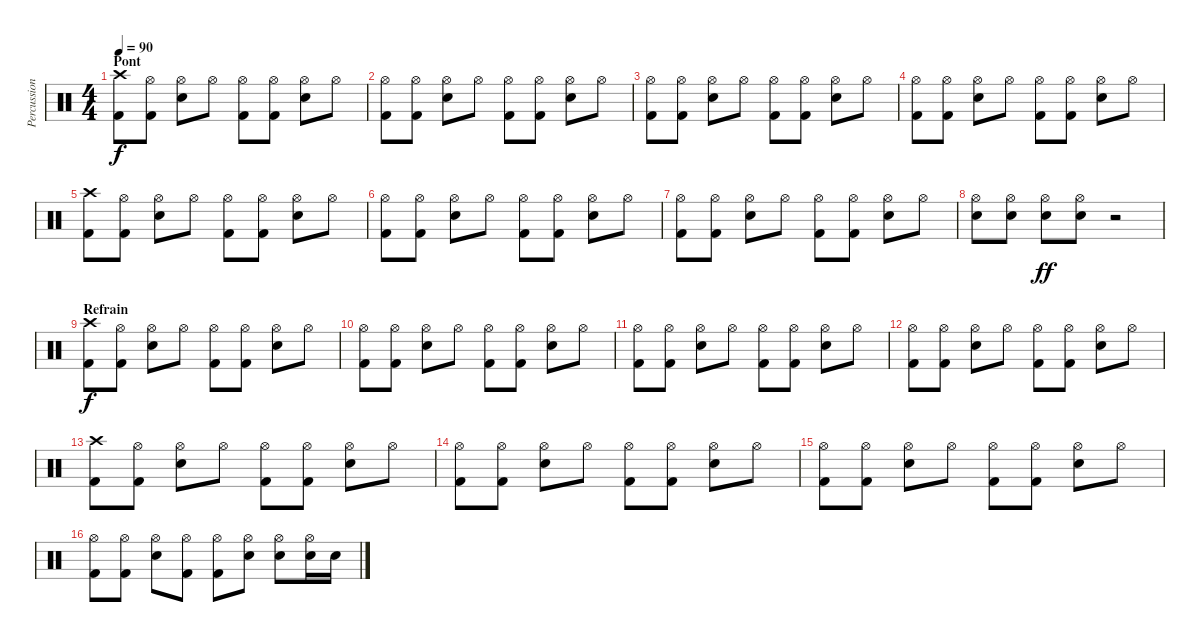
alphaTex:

\track ("Percussions" "Percussion") {instrument percussion}
\staff {score}
\articulation defaults
\ts (4 4)
\section ("" "Pont")
\tempo 90
\clef neutral
\ks c
("Crash high (hit)" "Kick (hit) 2").8{dy f} ("Hi-Hat (open)" "Kick (hit) 2").8 ("Hi-Hat (open)" "Snare (hit) 2").8 "Hi-Hat (open)".8 ("Hi-Hat (open)" "Kick (hit) 2").8 ("Hi-Hat (open)" "Kick (hit) 2").8 ("Hi-Hat (open)" "Snare (hit) 2").8 "Hi-Hat (open)".8 |
("Hi-Hat (open)" "Kick (hit) 2").8 ("Hi-Hat (open)" "Kick (hit) 2").8 ("Hi-Hat (open)" "Snare (hit) 2").8 "Hi-Hat (open)".8 ("Hi-Hat (open)" "Kick (hit) 2").8 ("Hi-Hat (open)" "Kick (hit) 2").8 ("Hi-Hat (open)" "Snare (hit) 2").8 "Hi-Hat (open)".8 |
("Hi-Hat (open)" "Kick (hit) 2").8 ("Hi-Hat (open)" "Kick (hit) 2").8 ("Hi-Hat (open)" "Snare (hit) 2").8 "Hi-Hat (open)".8 ("Hi-Hat (open)" "Kick (hit) 2").8 ("Hi-Hat (open)" "Kick (hit) 2").8 ("Hi-Hat (open)" "Snare (hit) 2").8 "Hi-Hat (open)".8 |
("Hi-Hat (open)" "Kick (hit) 2").8 ("Hi-Hat (open)" "Kick (hit) 2").8 ("Hi-Hat (open)" "Snare (hit) 2").8 "Hi-Hat (open)".8 ("Hi-Hat (open)" "Kick (hit) 2").8 ("Hi-Hat (open)" "Kick (hit) 2").8 ("Hi-Hat (open)" "Snare (hit) 2").8 "Hi-Hat (open)".8 |
("Crash high (hit)" "Kick (hit) 2").8 ("Hi-Hat (open)" "Kick (hit) 2").8 ("Hi-Hat (open)" "Snare (hit) 2").8 "Hi-Hat (open)".8 ("Hi-Hat (open)" "Kick (hit) 2").8 ("Hi-Hat (open)" "Kick (hit) 2").8 ("Hi-Hat (open)" "Snare (hit) 2").8 "Hi-Hat (open)".8 |
("Hi-Hat (open)" "Kick (hit) 2").8 ("Hi-Hat (open)" "Kick (hit) 2").8 ("Hi-Hat (open)" "Snare (hit) 2").8 "Hi-Hat (open)".8 ("Hi-Hat (open)" "Kick (hit) 2").8 ("Hi-Hat (open)" "Kick (hit) 2").8 ("Hi-Hat (open)" "Snare (hit) 2").8 "Hi-Hat (open)".8 |
("Hi-Hat (open)" "Kick (hit) 2").8 ("Hi-Hat (open)" "Kick (hit) 2").8 ("Hi-Hat (open)" "Snare (hit) 2").8 "Hi-Hat (open)".8 ("Hi-Hat (open)" "Kick (hit) 2").8 ("Hi-Hat (open)" "Kick (hit) 2").8 ("Hi-Hat (open)" "Snare (hit) 2").8 "Hi-Hat (open)".8 |
("Hi-Hat (open)" "Snare (hit) 2").8 ("Hi-Hat (open)" "Snare (hit) 2").8 ("Hi-Hat (open)" "Snare (hit) 2").8{dy ff} ("Hi-Hat (open)" "Snare (hit) 2").8 r.2 |
\section ("" "Refrain")
("Crash high (hit)" "Kick (hit) 2").8{dy f} ("Hi-Hat (open)" "Kick (hit) 2").8 ("Hi-Hat (open)" "Snare (hit) 2").8 "Hi-Hat (open)".8 ("Hi-Hat (open)" "Kick (hit) 2").8 ("Hi-Hat (open)" "Kick (hit) 2").8 ("Hi-Hat (open)" "Snare (hit) 2").8 "Hi-Hat (open)".8 |
("Hi-Hat (open)" "Kick (hit) 2").8 ("Hi-Hat (open)" "Kick (hit) 2").8 ("Hi-Hat (open)" "Snare (hit) 2").8 "Hi-Hat (open)".8 ("Hi-Hat (open)" "Kick (hit) 2").8 ("Hi-Hat (open)" "Kick (hit) 2").8 ("Hi-Hat (open)" "Snare (hit) 2").8 "Hi-Hat (open)".8 |
("Hi-Hat (open)" "Kick (hit) 2").8 ("Hi-Hat (open)" "Kick (hit) 2").8 ("Hi-Hat (open)" "Snare (hit) 2").8 "Hi-Hat (open)".8 ("Hi-Hat (open)" "Kick (hit) 2").8 ("Hi-Hat (open)" "Kick (hit) 2").8 ("Hi-Hat (open)" "Snare (hit) 2").8 "Hi-Hat (open)".8 |
("Hi-Hat (open)" "Kick (hit) 2").8 ("Hi-Hat (open)" "Kick (hit) 2").8 ("Hi-Hat (open)" "Snare (hit) 2").8 "Hi-Hat (open)".8 ("Hi-Hat (open)" "Kick (hit) 2").8 ("Hi-Hat (open)" "Kick (hit) 2").8 ("Hi-Hat (open)" "Snare (hit) 2").8 "Hi-Hat (open)".8 |
("Crash high (hit)" "Kick (hit) 2").8 ("Hi-Hat (open)" "Kick (hit) 2").8 ("Hi-Hat (open)" "Snare (hit) 2").8 "Hi-Hat (open)".8 ("Hi-Hat (open)" "Kick (hit) 2").8 ("Hi-Hat (open)" "Kick (hit) 2").8 ("Hi-Hat (open)" "Snare (hit) 2").8 "Hi-Hat (open)".8 |
("Hi-Hat (open)" "Kick (hit) 2").8 ("Hi-Hat (open)" "Kick (hit) 2").8 ("Hi-Hat (open)" "Snare (hit) 2").8 "Hi-Hat (open)".8 ("Hi-Hat (open)" "Kick (hit) 2").8 ("Hi-Hat (open)" "Kick (hit) 2").8 ("Hi-Hat (open)" "Snare (hit) 2").8 "Hi-Hat (open)".8 |
("Hi-Hat (open)" "Kick (hit) 2").8 ("Hi-Hat (open)" "Kick (hit) 2").8 ("Hi-Hat (open)" "Snare (hit) 2").8 "Hi-Hat (open)".8 ("Hi-Hat (open)" "Kick (hit) 2").8 ("Hi-Hat (open)" "Kick (hit) 2").8 ("Hi-Hat (open)" "Snare (hit) 2").8 "Hi-Hat (open)".8 |
("Hi-Hat (open)" "Kick (hit) 2").8 ("Hi-Hat (open)" "Kick (hit) 2").8 ("Hi-Hat (open)" "Snare (hit) 2").8 ("Hi-Hat (open)" "Kick (hit) 2").8 ("Hi-Hat (open)" "Kick (hit) 2").8 ("Hi-Hat (open)" "Snare (hit) 2").8 ("Hi-Hat (open)" "Snare (hit) 2").8 ("Hi-Hat (open)" "Snare (hit) 2").16 "Snare (hit) 2".16
